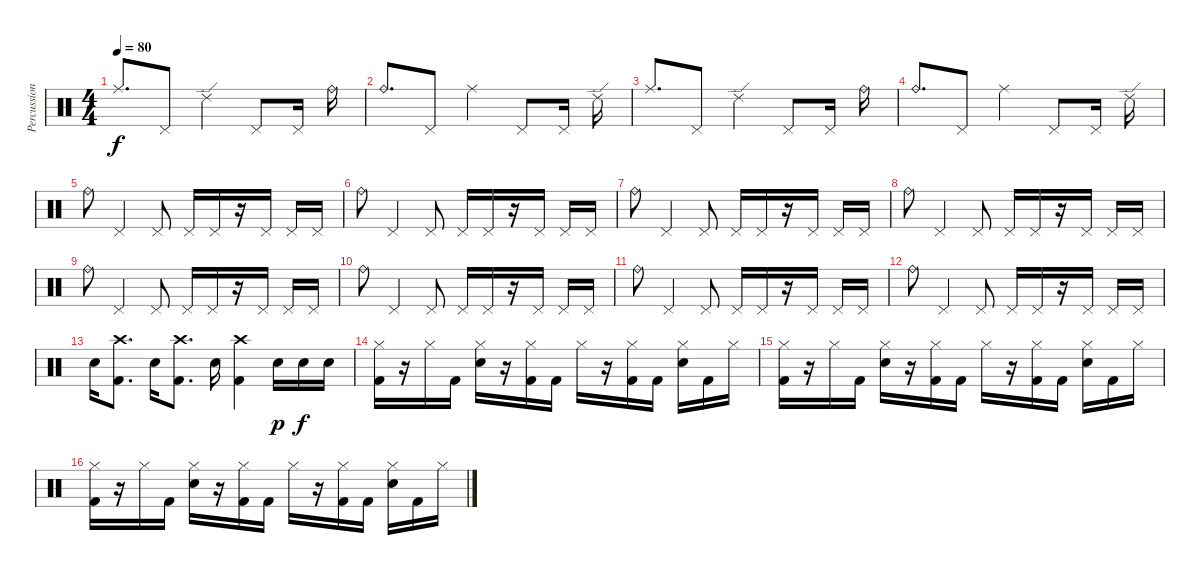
\track ("Percussion" "Percussion") {instrument percussion}
\staff {score}
\articulation defaults
\ts (4 4)
\tempo 80
\clef neutral
\ks c "Ride (middle)".8{d dy f} "Pedal Hi-Hat (hit)".8 "Ride (edge) 2".4 "Pedal Hi-Hat (hit)".8 "Pedal Hi-Hat (hit)".16 "Ride (bell)".16
|
"Ride (bell)".8{d} "Pedal Hi-Hat (hit)".8 "Ride (middle)".4 "Pedal Hi-Hat (hit)".8 "Pedal Hi-Hat (hit)".16 "Ride (edge) 2".16 |
"Ride (middle)".8{d} "Pedal Hi-Hat (hit)".8 "Ride (edge) 2".4 "Pedal Hi-Hat (hit)".8 "Pedal Hi-Hat (hit)".16 "Ride (bell)".16 |
"Ride (bell)".8{d} "Pedal Hi-Hat (hit)".8 "Ride (middle)".4 "Pedal Hi-Hat (hit)".8 "Pedal Hi-Hat (hit)".16 "Ride (edge) 2".16 |
"Ride (bell)".8 "Pedal Hi-Hat (hit)".4 "Pedal Hi-Hat (hit)".8 "Pedal Hi-Hat (hit)".16 "Pedal Hi-Hat (hit)".16 r.16 "Pedal Hi-Hat (hit)".16 "Pedal Hi-Hat (hit)".16 "Pedal Hi-Hat (hit)".16 |
"Ride (bell)".8 "Pedal Hi-Hat (hit)".4 "Pedal Hi-Hat (hit)".8 "Pedal Hi-Hat (hit)".16 "Pedal Hi-Hat (hit)".16 r.16 "Pedal Hi-Hat (hit)".16 "Pedal Hi-Hat (hit)".16 "Pedal Hi-Hat (hit)".16 |
"Ride (bell)".8 "Pedal Hi-Hat (hit)".4 "Pedal Hi-Hat (hit)".8 "Pedal Hi-Hat (hit)".16 "Pedal Hi-Hat (hit)".16 r.16 "Pedal Hi-Hat (hit)".16 "Pedal Hi-Hat (hit)".16 "Pedal Hi-Hat (hit)".16 |
"Ride (bell)".8 "Pedal Hi-Hat (hit)".4 "Pedal Hi-Hat (hit)".8 "Pedal Hi-Hat (hit)".16 "Pedal Hi-Hat (hit)".16 r.16 "Pedal Hi-Hat (hit)".16 "Pedal Hi-Hat (hit)".16 "Pedal Hi-Hat (hit)".16 |
"Ride (bell)".8 "Pedal Hi-Hat (hit)".4 "Pedal Hi-Hat (hit)".8 "Pedal Hi-Hat (hit)".16 "Pedal Hi-Hat (hit)".16 r.16 "Pedal Hi-Hat (hit)".16 "Pedal Hi-Hat (hit)".16 "Pedal Hi-Hat (hit)".16 |
"Ride (bell)".8 "Pedal Hi-Hat (hit)".4 "Pedal Hi-Hat (hit)".8 "Pedal Hi-Hat (hit)".16 "Pedal Hi-Hat (hit)".16 r.16 "Pedal Hi-Hat (hit)".16 "Pedal Hi-Hat (hit)".16 "Pedal Hi-Hat (hit)".16 |
"Ride (bell)".8 "Pedal Hi-Hat (hit)".4 "Pedal Hi-Hat (hit)".8 "Pedal Hi-Hat (hit)".16 "Pedal Hi-Hat (hit)".16 r.16 "Pedal Hi-Hat (hit)".16 "Pedal Hi-Hat (hit)".16 "Pedal Hi-Hat (hit)".16 |
"Ride (bell)".8 "Pedal Hi-Hat (hit)".4 "Pedal Hi-Hat (hit)".8 "Pedal Hi-Hat (hit)".16 "Pedal Hi-Hat (hit)".16 r.16 "Pedal Hi-Hat (hit)".16 "Pedal Hi-Hat (hit)".16 "Pedal Hi-Hat (hit)".16 |
"Electric Snare (hit)".16 ("Crash high (hit)" "Kick (hit) 2").8{d} "Electric Snare (hit)".16 ("Crash high (hit)" "Kick (hit) 2").8{d} "Electric Snare (hit)".16 ("Crash high (hit)" "Kick (hit) 2").4 "Electric Snare (hit)".16{dy p} "Electric Snare (hit)".16{dy f} "Electric Snare (hit)".16 |
("Hi-Hat (closed)" "Kick (hit) 2").16 r.16 "Hi-Hat (closed)".16 "Kick (hit) 2".16 ("Hi-Hat (closed)" "Electric Snare (hit)").16 r.16 ("Hi-Hat (closed)" "Kick (hit) 2").16 "Kick (hit) 2".16 "Hi-Hat (closed)".16 r.16 ("Hi-Hat (closed)" "Kick (hit) 2").16 "Kick (hit) 2".16 ("Hi-Hat (closed)" "Electric Snare (hit)").16 "Kick (hit) 2".16 "Hi-Hat (closed)".16 |
("Hi-Hat (closed)" "Kick (hit) 2").16 r.16 "Hi-Hat (closed)".16 "Kick (hit) 2".16 ("Hi-Hat (closed)" "Electric Snare (hit)").16 r.16 ("Hi-Hat (closed)" "Kick (hit) 2").16 "Kick (hit) 2".16 "Hi-Hat (closed)".16 r.16 ("Hi-Hat (closed)" "Kick (hit) 2").16 "Kick (hit) 2".16 ("Hi-Hat (closed)" "Electric Snare (hit)").16 "Kick (hit) 2".16 "Hi-Hat (closed)".16 |
("Hi-Hat (closed)" "Kick (hit) 2").16 r.16 "Hi-Hat (closed)".16 "Kick (hit) 2".16 ("Hi-Hat (closed)" "Electric Snare (hit)").16 r.16 ("Hi-Hat (closed)" "Kick (hit) 2").16 "Kick (hit) 2".16 "Hi-Hat (closed)".16 r.16 ("Hi-Hat (closed)" "Kick (hit) 2").16 "Kick (hit) 2".16 ("Hi-Hat (closed)" "Electric Snare (hit)").16 "Kick (hit) 2".16 "Hi-Hat (closed)".16
